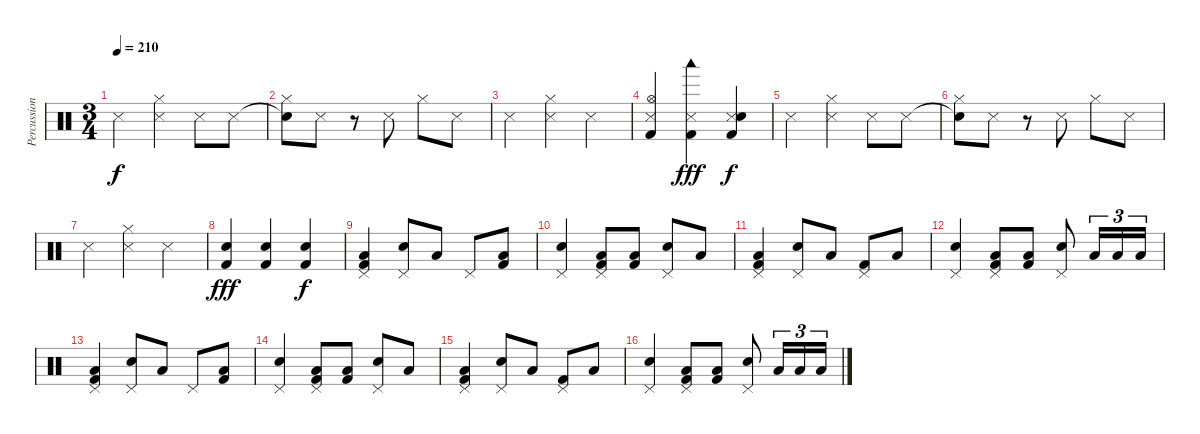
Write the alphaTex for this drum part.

\track ("Percussion" "Percussion") {instrument percussion}
\staff
\articulation defaults
\ts (3 4)
\tempo 210
\clef neutral
\ks c "Snare (side stick) 3".4{dy f}
("Snare (side stick) 3" "Hi-Hat (closed)").4 "Snare (side stick) 3".8 "Snare (side stick) 3".8 |
("Snare (hit)"{t} "Hi-Hat (closed)").8 "Snare (side stick) 3".8 r.8 "Snare (side stick) 3".8 "Hi-Hat (closed)".8 "Snare (side stick) 3".8 |
"Snare (side stick) 3".4 ("Snare (side stick) 3" "Hi-Hat (closed)").4 "Snare (side stick) 3".4 |
("Snare (side stick) 3" "Hi-Hat (open)" "Kick (hit) 2").4 ("Snare (side stick) 3" "Woodblock low (hit)" "Kick (hit) 2").4{dy fff} ("Snare (side stick) 3" "Snare (hit) 2" "Kick (hit) 2").4{dy f} |
"Snare (side stick) 3".4 ("Snare (side stick) 3" "Hi-Hat (closed)").4 "Snare (side stick) 3".8 "Snare (side stick) 3".8 |
("Snare (hit)"{t} "Hi-Hat (closed)").8 "Snare (side stick) 3".8 r.8 "Snare (side stick) 3".8 "Hi-Hat (closed)".8 "Snare (side stick) 3".8 |
"Snare (side stick) 3".4 ("Snare (side stick) 3" "Hi-Hat (closed)").4 "Snare (side stick) 3".4 |
("Snare (hit) 2" "Kick (hit) 2").4{dy fff} ("Snare (hit) 2" "Kick (hit) 2").4 ("Snare (hit) 2" "Kick (hit) 2").4{dy f} |
("Pedal Hi-Hat (hit)" "Low Floor Tom (hit)" "Kick (hit) 2").4 ("Pedal Hi-Hat (hit)" "Electric Snare (hit)").8 "Low Floor Tom (hit)".8 "Pedal Hi-Hat (hit)".8 ("Low Floor Tom (hit)" "Kick (hit) 2").8 |
("Pedal Hi-Hat (hit)" "Electric Snare (hit)").4 ("Pedal Hi-Hat (hit)" "Low Floor Tom (hit)" "Kick (hit) 2").8 ("Low Floor Tom (hit)" "Kick (hit) 2").8 ("Pedal Hi-Hat (hit)" "Electric Snare (hit)").8 "Low Floor Tom (hit)".8 |
("Pedal Hi-Hat (hit)" "Low Floor Tom (hit)" "Kick (hit) 2").4 ("Pedal Hi-Hat (hit)" "Electric Snare (hit)").8 "Low Floor Tom (hit)".8 ("Pedal Hi-Hat (hit)" "Kick (hit) 2").8 "Low Floor Tom (hit)".8 |
("Pedal Hi-Hat (hit)" "Electric Snare (hit)").4 ("Pedal Hi-Hat (hit)" "Low Floor Tom (hit)" "Kick (hit) 2").8 ("Low Floor Tom (hit)" "Kick (hit) 2").8 ("Pedal Hi-Hat (hit)" "Electric Snare (hit)").8 "Low Floor Tom (hit)".16{tu (3 2)} "Low Floor Tom (hit)".16{tu (3 2)} "Low Floor Tom (hit)".16{tu (3 2)} |
("Pedal Hi-Hat (hit)" "Low Floor Tom (hit)" "Kick (hit) 2").4 ("Pedal Hi-Hat (hit)" "Electric Snare (hit)").8 "Low Floor Tom (hit)".8 "Pedal Hi-Hat (hit)".8 ("Low Floor Tom (hit)" "Kick (hit) 2").8 |
("Pedal Hi-Hat (hit)" "Electric Snare (hit)").4 ("Pedal Hi-Hat (hit)" "Low Floor Tom (hit)" "Kick (hit) 2").8 ("Low Floor Tom (hit)" "Kick (hit) 2").8 ("Pedal Hi-Hat (hit)" "Electric Snare (hit)").8 "Low Floor Tom (hit)".8 |
("Pedal Hi-Hat (hit)" "Low Floor Tom (hit)" "Kick (hit) 2").4 ("Pedal Hi-Hat (hit)" "Electric Snare (hit)").8 "Low Floor Tom (hit)".8 ("Pedal Hi-Hat (hit)" "Kick (hit) 2").8 "Low Floor Tom (hit)".8 |
("Pedal Hi-Hat (hit)" "Electric Snare (hit)").4 ("Pedal Hi-Hat (hit)" "Low Floor Tom (hit)" "Kick (hit) 2").8 ("Low Floor Tom (hit)" "Kick (hit) 2").8 ("Pedal Hi-Hat (hit)" "Electric Snare (hit)").8 "Low Floor Tom (hit)".16{tu (3 2)} "Low Floor Tom (hit)".16{tu (3 2)} "Low Floor Tom (hit)".16{tu (3 2)}
